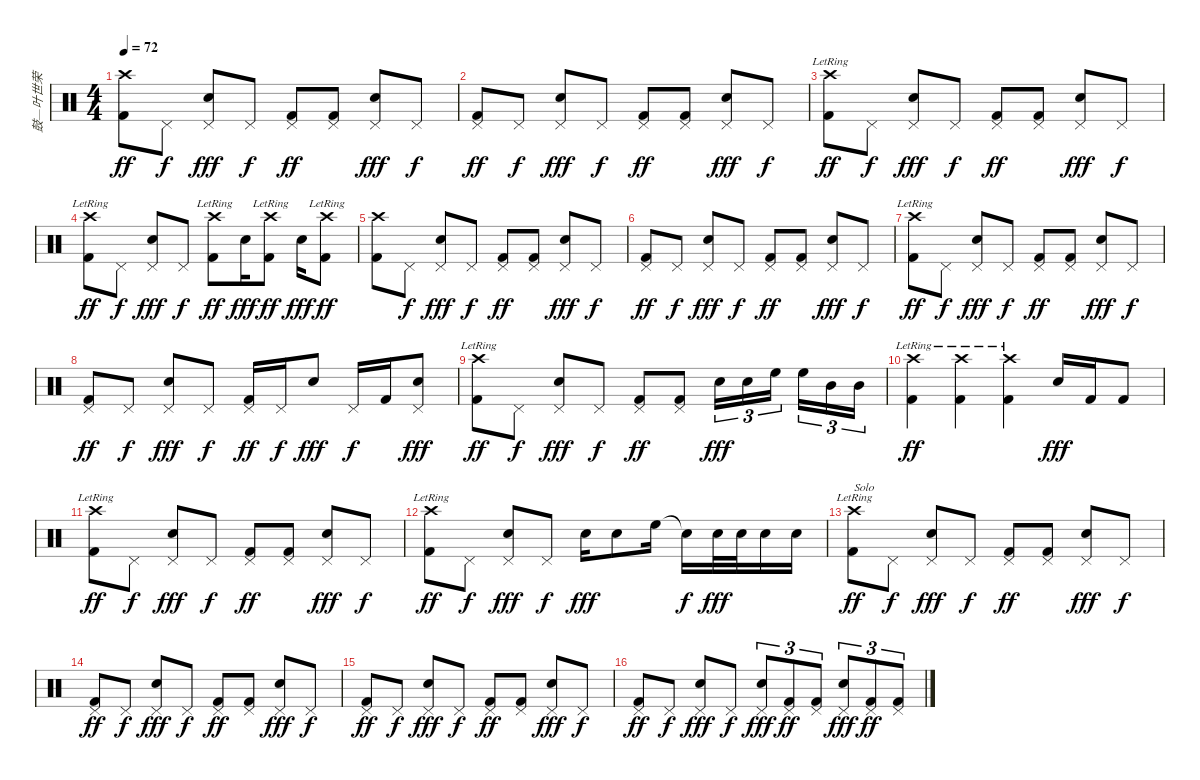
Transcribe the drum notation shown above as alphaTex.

\track ("鼓—叶世荣" "鼓—叶世荣") {instrument percussion}
\staff {score}
\articulation defaults
\ts (4 4)
\tempo 72
\clef neutral
\ks c
("Crash high (hit)" "Kick (hit) 2").8{dy ff} "Pedal Hi-Hat (hit)".8{dy f} ("Pedal Hi-Hat (hit)" "Electric Snare (hit)").8{dy fff} "Pedal Hi-Hat (hit)".8{dy f} ("Pedal Hi-Hat (hit)" "Kick (hit) 2").8{dy ff} ("Pedal Hi-Hat (hit)" "Kick (hit) 2").8 ("Pedal Hi-Hat (hit)" "Electric Snare (hit)").8{dy fff} "Pedal Hi-Hat (hit)".8{dy f} |
("Pedal Hi-Hat (hit)" "Kick (hit) 2").8{dy ff} "Pedal Hi-Hat (hit)".8{dy f} ("Pedal Hi-Hat (hit)" "Electric Snare (hit)").8{dy fff} "Pedal Hi-Hat (hit)".8{dy f} ("Pedal Hi-Hat (hit)" "Kick (hit) 2").8{dy ff} ("Pedal Hi-Hat (hit)" "Kick (hit) 2").8 ("Pedal Hi-Hat (hit)" "Electric Snare (hit)").8{dy fff} "Pedal Hi-Hat (hit)".8{dy f} |
("Crash high (hit)"{lr} "Kick (hit) 2").8{dy ff} "Pedal Hi-Hat (hit)".8{dy f} ("Pedal Hi-Hat (hit)" "Electric Snare (hit)").8{dy fff} "Pedal Hi-Hat (hit)".8{dy f} ("Pedal Hi-Hat (hit)" "Kick (hit) 2").8{dy ff} ("Pedal Hi-Hat (hit)" "Kick (hit) 2").8 ("Pedal Hi-Hat (hit)" "Electric Snare (hit)").8{dy fff} "Pedal Hi-Hat (hit)".8{dy f} |
("Crash high (hit)"{lr} "Kick (hit) 2").8{dy ff} "Pedal Hi-Hat (hit)".8{dy f} ("Pedal Hi-Hat (hit)" "Electric Snare (hit)").8{dy fff} "Pedal Hi-Hat (hit)".8{dy f} ("Crash high (hit)"{lr} "Kick (hit) 2").8{dy ff} "Electric Snare (hit)".16{dy fff} ("Crash high (hit)"{lr} "Kick (hit) 2").8{dy ff} "Electric Snare (hit)".16{dy fff} ("Crash high (hit)"{lr} "Kick (hit) 2").8{dy ff} |
("Crash high (hit)" "Kick (hit) 2").8 "Pedal Hi-Hat (hit)".8{dy f} ("Pedal Hi-Hat (hit)" "Electric Snare (hit)").8{dy fff} "Pedal Hi-Hat (hit)".8{dy f} ("Pedal Hi-Hat (hit)" "Kick (hit) 2").8{dy ff} ("Pedal Hi-Hat (hit)" "Kick (hit) 2").8 ("Pedal Hi-Hat (hit)" "Electric Snare (hit)").8{dy fff} "Pedal Hi-Hat (hit)".8{dy f} |
("Pedal Hi-Hat (hit)" "Kick (hit) 2").8{dy ff} "Pedal Hi-Hat (hit)".8{dy f} ("Pedal Hi-Hat (hit)" "Electric Snare (hit)").8{dy fff} "Pedal Hi-Hat (hit)".8{dy f} ("Pedal Hi-Hat (hit)" "Kick (hit) 2").8{dy ff} ("Pedal Hi-Hat (hit)" "Kick (hit) 2").8 ("Pedal Hi-Hat (hit)" "Electric Snare (hit)").8{dy fff} "Pedal Hi-Hat (hit)".8{dy f} |
("Crash high (hit)"{lr} "Kick (hit) 2").8{dy ff} "Pedal Hi-Hat (hit)".8{dy f} ("Pedal Hi-Hat (hit)" "Electric Snare (hit)").8{dy fff} "Pedal Hi-Hat (hit)".8{dy f} ("Pedal Hi-Hat (hit)" "Kick (hit) 2").8{dy ff} ("Pedal Hi-Hat (hit)" "Kick (hit) 2").8 ("Pedal Hi-Hat (hit)" "Electric Snare (hit)").8{dy fff} "Pedal Hi-Hat (hit)".8{dy f} |
("Pedal Hi-Hat (hit)" "Kick (hit) 2").8{dy ff} "Pedal Hi-Hat (hit)".8{dy f} ("Pedal Hi-Hat (hit)" "Electric Snare (hit)").8{dy fff} "Pedal Hi-Hat (hit)".8{dy f} ("Pedal Hi-Hat (hit)" "Kick (hit) 2").16{dy ff} "Pedal Hi-Hat (hit)".16{dy f} "Electric Snare (hit)".8{dy fff} "Pedal Hi-Hat (hit)".16{dy f} "Kick (hit) 2".16 ("Pedal Hi-Hat (hit)" "Electric Snare (hit)").8{dy fff} |
("Crash high (hit)"{lr} "Kick (hit) 2").8{dy ff} "Pedal Hi-Hat (hit)".8{dy f} ("Pedal Hi-Hat (hit)" "Electric Snare (hit)").8{dy fff} "Pedal Hi-Hat (hit)".8{dy f} ("Pedal Hi-Hat (hit)" "Kick (hit) 2").8{dy ff} ("Pedal Hi-Hat (hit)" "Kick (hit) 2").8 "Electric Snare (hit)".16{tu (3 2) dy fff} "Electric Snare (hit)".16{tu (3 2)} "High Floor Tom (hit)".16{tu (3 2) beam splitsecondary} "High Floor Tom (hit)".16{tu (3 2)} "Mid Tom (hit)".16{tu (3 2)} "Mid Tom (hit)".16{tu (3 2)} |
("Crash high (hit)"{lr} "Kick (hit) 2").4{dy ff} ("Crash high (hit)"{lr} "Kick (hit) 2").4 ("Crash high (hit)"{lr} "Kick (hit) 2").4 "Electric Snare (hit)".16{dy fff} "Kick (hit) 2".16 "Kick (hit) 2".8 |
("Crash high (hit)"{lr} "Kick (hit) 2").8{dy ff} "Pedal Hi-Hat (hit)".8{dy f} ("Pedal Hi-Hat (hit)" "Electric Snare (hit)").8{dy fff} "Pedal Hi-Hat (hit)".8{dy f} ("Pedal Hi-Hat (hit)" "Kick (hit) 2").8{dy ff} ("Pedal Hi-Hat (hit)" "Kick (hit) 2").8 ("Pedal Hi-Hat (hit)" "Electric Snare (hit)").8{dy fff} "Pedal Hi-Hat (hit)".8{dy f} |
("Crash high (hit)"{lr} "Kick (hit) 2").8{dy ff} "Pedal Hi-Hat (hit)".8{dy f} ("Pedal Hi-Hat (hit)" "Electric Snare (hit)").8{dy fff} "Pedal Hi-Hat (hit)".8{dy f} "Electric Snare (hit)".16{dy fff} "Electric Snare (hit)".8 "High Floor Tom (hit)".16 "Snare (hit)"{t}.16{dy f} "Electric Snare (hit)".32{dy fff} "Electric Snare (hit)".32 "Electric Snare (hit)".16 "Electric Snare (hit)".16 |
("Crash high (hit)"{lr} "Kick (hit) 2").8{txt "Solo" dy ff} "Pedal Hi-Hat (hit)".8{dy f} ("Pedal Hi-Hat (hit)" "Electric Snare (hit)").8{dy fff} "Pedal Hi-Hat (hit)".8{dy f} ("Pedal Hi-Hat (hit)" "Kick (hit) 2").8{dy ff} ("Pedal Hi-Hat (hit)" "Kick (hit) 2").8 ("Pedal Hi-Hat (hit)" "Electric Snare (hit)").8{dy fff} "Pedal Hi-Hat (hit)".8{dy f} |
("Pedal Hi-Hat (hit)" "Kick (hit) 2").8{dy ff} "Pedal Hi-Hat (hit)".8{dy f} ("Pedal Hi-Hat (hit)" "Electric Snare (hit)").8{dy fff} "Pedal Hi-Hat (hit)".8{dy f} ("Pedal Hi-Hat (hit)" "Kick (hit) 2").8{dy ff} ("Pedal Hi-Hat (hit)" "Kick (hit) 2").8 ("Pedal Hi-Hat (hit)" "Electric Snare (hit)").8{dy fff} "Pedal Hi-Hat (hit)".8{dy f} |
("Pedal Hi-Hat (hit)" "Kick (hit) 2").8{dy ff} "Pedal Hi-Hat (hit)".8{dy f} ("Pedal Hi-Hat (hit)" "Electric Snare (hit)").8{dy fff} "Pedal Hi-Hat (hit)".8{dy f} ("Pedal Hi-Hat (hit)" "Kick (hit) 2").8{dy ff} ("Pedal Hi-Hat (hit)" "Kick (hit) 2").8 ("Pedal Hi-Hat (hit)" "Electric Snare (hit)").8{dy fff} "Pedal Hi-Hat (hit)".8{dy f} |
("Pedal Hi-Hat (hit)" "Kick (hit) 2").8{dy ff} "Pedal Hi-Hat (hit)".8{dy f} ("Pedal Hi-Hat (hit)" "Electric Snare (hit)").8{dy fff} "Pedal Hi-Hat (hit)".8{dy f} ("Pedal Hi-Hat (hit)" "Electric Snare (hit)").8{tu (3 2) dy fff} ("Pedal Hi-Hat (hit)" "Kick (hit) 2").8{tu (3 2) dy ff} ("Pedal Hi-Hat (hit)" "Kick (hit) 2").8{tu (3 2)} ("Pedal Hi-Hat (hit)" "Electric Snare (hit)").8{tu (3 2) dy fff} ("Pedal Hi-Hat (hit)" "Kick (hit) 2").8{tu (3 2) dy ff} ("Pedal Hi-Hat (hit)" "Kick (hit) 2").8{tu (3 2)}
